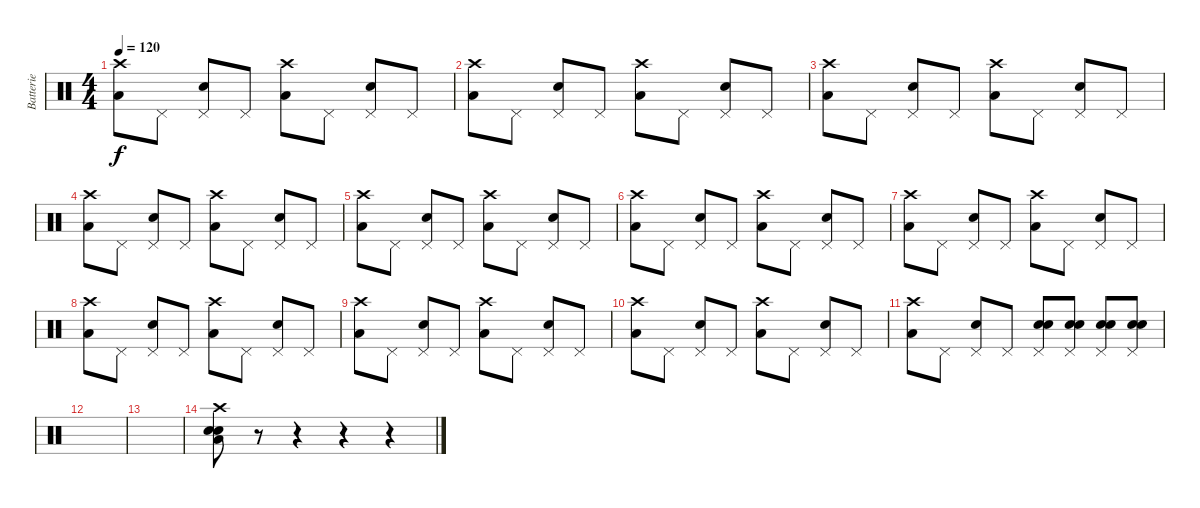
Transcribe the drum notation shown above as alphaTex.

\track ("Batterie" "Batterie") {instrument percussion}
\staff {score}
\articulation defaults
\ts (4 4)
\tempo 120
\clef neutral
\ks c
("Crash high (hit)" "Low Floor Tom (hit)").8{dy f} "Pedal Hi-Hat (hit)".8 ("Pedal Hi-Hat (hit)" "Electric Snare (hit)").8 "Pedal Hi-Hat (hit)".8 ("Crash high (hit)" "Low Floor Tom (hit)").8 "Pedal Hi-Hat (hit)".8 ("Pedal Hi-Hat (hit)" "Electric Snare (hit)").8 "Pedal Hi-Hat (hit)".8 |
("Crash high (hit)" "Low Floor Tom (hit)").8 "Pedal Hi-Hat (hit)".8 ("Pedal Hi-Hat (hit)" "Electric Snare (hit)").8 "Pedal Hi-Hat (hit)".8 ("Crash high (hit)" "Low Floor Tom (hit)").8 "Pedal Hi-Hat (hit)".8 ("Pedal Hi-Hat (hit)" "Electric Snare (hit)").8 "Pedal Hi-Hat (hit)".8 |
("Crash high (hit)" "Low Floor Tom (hit)").8 "Pedal Hi-Hat (hit)".8 ("Pedal Hi-Hat (hit)" "Electric Snare (hit)").8 "Pedal Hi-Hat (hit)".8 ("Crash high (hit)" "Low Floor Tom (hit)").8 "Pedal Hi-Hat (hit)".8 ("Pedal Hi-Hat (hit)" "Electric Snare (hit)").8 "Pedal Hi-Hat (hit)".8 |
("Crash high (hit)" "Low Floor Tom (hit)").8 "Pedal Hi-Hat (hit)".8 ("Pedal Hi-Hat (hit)" "Electric Snare (hit)").8 "Pedal Hi-Hat (hit)".8 ("Crash high (hit)" "Low Floor Tom (hit)").8 "Pedal Hi-Hat (hit)".8 ("Pedal Hi-Hat (hit)" "Electric Snare (hit)").8 "Pedal Hi-Hat (hit)".8 |
("Crash high (hit)" "Low Floor Tom (hit)").8 "Pedal Hi-Hat (hit)".8 ("Pedal Hi-Hat (hit)" "Electric Snare (hit)").8 "Pedal Hi-Hat (hit)".8 ("Crash high (hit)" "Low Floor Tom (hit)").8 "Pedal Hi-Hat (hit)".8 ("Pedal Hi-Hat (hit)" "Electric Snare (hit)").8 "Pedal Hi-Hat (hit)".8 |
("Crash high (hit)" "Low Floor Tom (hit)").8 "Pedal Hi-Hat (hit)".8 ("Pedal Hi-Hat (hit)" "Electric Snare (hit)").8 "Pedal Hi-Hat (hit)".8 ("Crash high (hit)" "Low Floor Tom (hit)").8 "Pedal Hi-Hat (hit)".8 ("Pedal Hi-Hat (hit)" "Electric Snare (hit)").8 "Pedal Hi-Hat (hit)".8 |
("Crash high (hit)" "Low Floor Tom (hit)").8 "Pedal Hi-Hat (hit)".8 ("Pedal Hi-Hat (hit)" "Electric Snare (hit)").8 "Pedal Hi-Hat (hit)".8 ("Crash high (hit)" "Low Floor Tom (hit)").8 "Pedal Hi-Hat (hit)".8 ("Pedal Hi-Hat (hit)" "Electric Snare (hit)").8 "Pedal Hi-Hat (hit)".8 |
("Crash high (hit)" "Low Floor Tom (hit)").8 "Pedal Hi-Hat (hit)".8 ("Pedal Hi-Hat (hit)" "Electric Snare (hit)").8 "Pedal Hi-Hat (hit)".8 ("Crash high (hit)" "Low Floor Tom (hit)").8 "Pedal Hi-Hat (hit)".8 ("Pedal Hi-Hat (hit)" "Electric Snare (hit)").8 "Pedal Hi-Hat (hit)".8 |
("Crash high (hit)" "Low Floor Tom (hit)").8 "Pedal Hi-Hat (hit)".8 ("Pedal Hi-Hat (hit)" "Electric Snare (hit)").8 "Pedal Hi-Hat (hit)".8 ("Crash high (hit)" "Low Floor Tom (hit)").8 "Pedal Hi-Hat (hit)".8 ("Pedal Hi-Hat (hit)" "Electric Snare (hit)").8 "Pedal Hi-Hat (hit)".8 |
("Crash high (hit)" "Low Floor Tom (hit)").8 "Pedal Hi-Hat (hit)".8 ("Pedal Hi-Hat (hit)" "Electric Snare (hit)").8 "Pedal Hi-Hat (hit)".8 ("Crash high (hit)" "Low Floor Tom (hit)").8 "Pedal Hi-Hat (hit)".8 ("Pedal Hi-Hat (hit)" "Electric Snare (hit)").8 "Pedal Hi-Hat (hit)".8 |
("Crash high (hit)" "Low Floor Tom (hit)").8 "Pedal Hi-Hat (hit)".8 ("Pedal Hi-Hat (hit)" "Electric Snare (hit)").8 "Pedal Hi-Hat (hit)".8 ("Pedal Hi-Hat (hit)" "Electric Snare (hit)" "Snare (hit) 2").8 ("Pedal Hi-Hat (hit)" "Electric Snare (hit)" "Snare (hit) 2").8 ("Pedal Hi-Hat (hit)" "Electric Snare (hit)" "Snare (hit) 2").8 ("Pedal Hi-Hat (hit)" "Electric Snare (hit)" "Snare (hit) 2").8 |
|
|
("Crash high (hit)" "Snare (hit) 2" "Electric Snare (hit)" "Low Floor Tom (hit)").8 r.8 r.4 r.4 r.4
